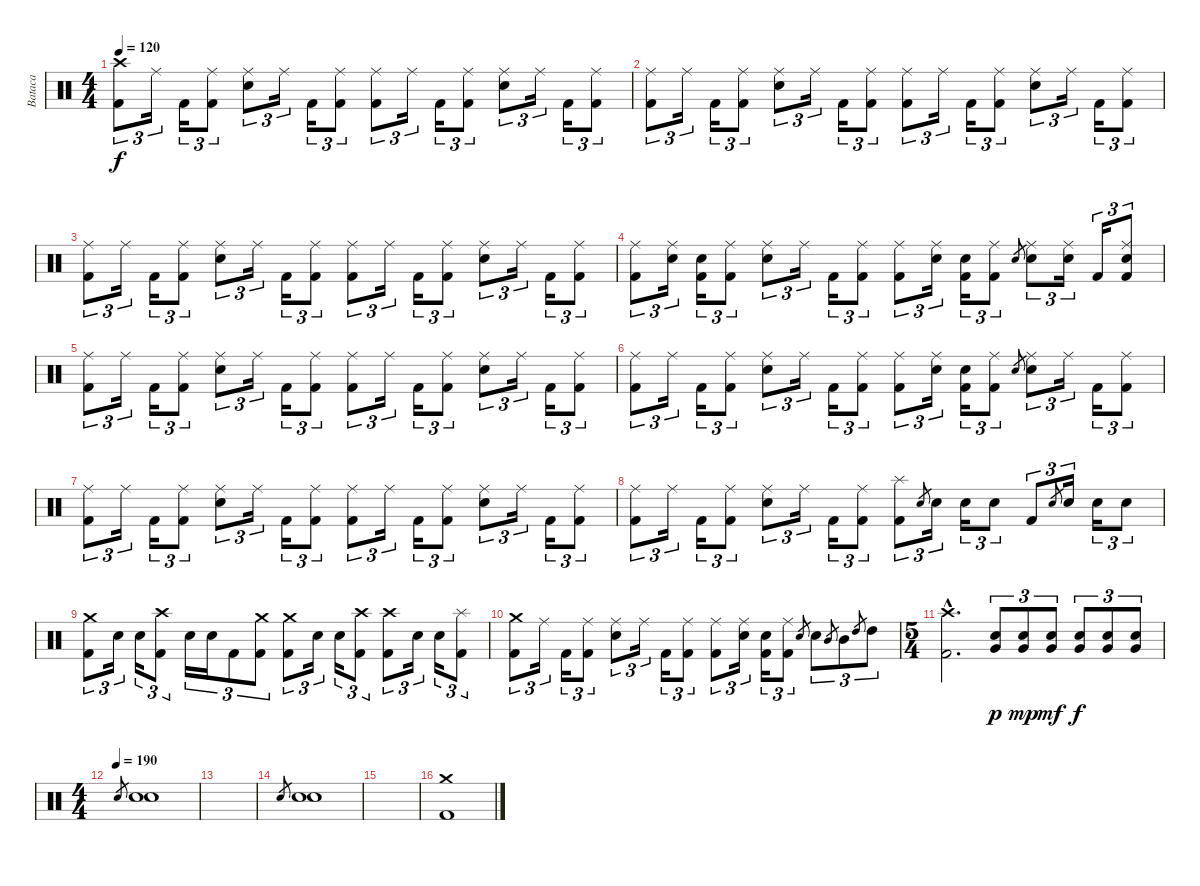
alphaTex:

\track ("Bataca" "Bataca") {instrument percussion}
\staff {score}
\articulation defaults
\ts (4 4)
\tempo 120
\clef neutral
\ks c
("Crash high (hit)" "Kick (hit) 2").8{tu (3 2) dy f} "Ride (middle)".16{tu (3 2)} "Kick (hit) 2".16{tu (3 2)} ("Ride (middle)" "Kick (hit) 2").8{tu (3 2)} ("Ride (middle)" "Electric Snare (hit)").8{tu (3 2)} "Ride (middle)".16{tu (3 2)} "Kick (hit) 2".16{tu (3 2)} ("Ride (middle)" "Kick (hit) 2").8{tu (3 2)} ("Ride (middle)" "Kick (hit) 2").8{tu (3 2)} "Ride (middle)".16{tu (3 2)} "Kick (hit) 2".16{tu (3 2)} ("Ride (middle)" "Kick (hit) 2").8{tu (3 2)} ("Ride (middle)" "Electric Snare (hit)").8{tu (3 2)} "Ride (middle)".16{tu (3 2)} "Kick (hit) 2".16{tu (3 2)} ("Ride (middle)" "Kick (hit) 2").8{tu (3 2)} |
("Ride (middle)" "Kick (hit) 2").8{tu (3 2)} "Ride (middle)".16{tu (3 2)} "Kick (hit) 2".16{tu (3 2)} ("Ride (middle)" "Kick (hit) 2").8{tu (3 2)} ("Ride (middle)" "Electric Snare (hit)").8{tu (3 2)} "Ride (middle)".16{tu (3 2)} "Kick (hit) 2".16{tu (3 2)} ("Ride (middle)" "Kick (hit) 2").8{tu (3 2)} ("Ride (middle)" "Kick (hit) 2").8{tu (3 2)} "Ride (middle)".16{tu (3 2)} "Kick (hit) 2".16{tu (3 2)} ("Ride (middle)" "Kick (hit) 2").8{tu (3 2)} ("Ride (middle)" "Electric Snare (hit)").8{tu (3 2)} "Ride (middle)".16{tu (3 2)} "Kick (hit) 2".16{tu (3 2)} ("Ride (middle)" "Kick (hit) 2").8{tu (3 2)} |
("Ride (middle)" "Kick (hit) 2").8{tu (3 2)} "Ride (middle)".16{tu (3 2)} "Kick (hit) 2".16{tu (3 2)} ("Ride (middle)" "Kick (hit) 2").8{tu (3 2)} ("Ride (middle)" "Electric Snare (hit)").8{tu (3 2)} "Ride (middle)".16{tu (3 2)} "Kick (hit) 2".16{tu (3 2)} ("Ride (middle)" "Kick (hit) 2").8{tu (3 2)} ("Ride (middle)" "Kick (hit) 2").8{tu (3 2)} "Ride (middle)".16{tu (3 2)} "Kick (hit) 2".16{tu (3 2)} ("Ride (middle)" "Kick (hit) 2").8{tu (3 2)} ("Ride (middle)" "Electric Snare (hit)").8{tu (3 2)} "Ride (middle)".16{tu (3 2)} "Kick (hit) 2".16{tu (3 2)} ("Ride (middle)" "Kick (hit) 2").8{tu (3 2)} |
("Ride (middle)" "Kick (hit) 2").8{tu (3 2)} ("Ride (middle)" "Electric Snare (hit)").16{tu (3 2)} ("Electric Snare (hit)" "Kick (hit) 2").16{tu (3 2)} ("Ride (middle)" "Kick (hit) 2").8{tu (3 2)} ("Ride (middle)" "Electric Snare (hit)").8{tu (3 2)} "Ride (middle)".16{tu (3 2)} "Kick (hit) 2".16{tu (3 2)} ("Ride (middle)" "Kick (hit) 2").8{tu (3 2)} ("Ride (middle)" "Kick (hit) 2").8{tu (3 2)} ("Ride (middle)" "Electric Snare (hit)").16{tu (3 2)} ("Electric Snare (hit)" "Kick (hit) 2").16{tu (3 2)} ("Ride (middle)" "Kick (hit) 2").8{tu (3 2)} "Electric Snare (hit)".8{gr} ("Ride (middle)" "Electric Snare (hit)").8{tu (3 2)} ("Ride (middle)" "Electric Snare (hit)").16{tu (3 2)} "Kick (hit) 2".16{tu (3 2)} ("Ride (middle)" "Electric Snare (hit)" "Kick (hit) 2").8{tu (3 2)} |
("Ride (middle)" "Kick (hit) 2").8{tu (3 2)} "Ride (middle)".16{tu (3 2)} "Kick (hit) 2".16{tu (3 2)} ("Ride (middle)" "Kick (hit) 2").8{tu (3 2)} ("Ride (middle)" "Electric Snare (hit)").8{tu (3 2)} "Ride (middle)".16{tu (3 2)} "Kick (hit) 2".16{tu (3 2)} ("Ride (middle)" "Kick (hit) 2").8{tu (3 2)} ("Ride (middle)" "Kick (hit) 2").8{tu (3 2)} "Ride (middle)".16{tu (3 2)} "Kick (hit) 2".16{tu (3 2)} ("Ride (middle)" "Kick (hit) 2").8{tu (3 2)} ("Ride (middle)" "Electric Snare (hit)").8{tu (3 2)} "Ride (middle)".16{tu (3 2)} "Kick (hit) 2".16{tu (3 2)} ("Ride (middle)" "Kick (hit) 2").8{tu (3 2)} |
("Ride (middle)" "Kick (hit) 2").8{tu (3 2)} "Ride (middle)".16{tu (3 2)} "Kick (hit) 2".16{tu (3 2)} ("Ride (middle)" "Kick (hit) 2").8{tu (3 2)} ("Ride (middle)" "Electric Snare (hit)").8{tu (3 2)} "Ride (middle)".16{tu (3 2)} "Kick (hit) 2".16{tu (3 2)} ("Ride (middle)" "Kick (hit) 2").8{tu (3 2)} ("Ride (middle)" "Kick (hit) 2").8{tu (3 2)} ("Ride (middle)" "Electric Snare (hit)").16{tu (3 2)} ("Electric Snare (hit)" "Kick (hit) 2").16{tu (3 2)} ("Ride (middle)" "Kick (hit) 2").8{tu (3 2)} "Electric Snare (hit)".8{gr} ("Ride (middle)" "Electric Snare (hit)").8{tu (3 2)} "Ride (middle)".16{tu (3 2)} "Kick (hit) 2".16{tu (3 2)} ("Ride (middle)" "Kick (hit) 2").8{tu (3 2)} |
("Ride (middle)" "Kick (hit) 2").8{tu (3 2)} "Ride (middle)".16{tu (3 2)} "Kick (hit) 2".16{tu (3 2)} ("Ride (middle)" "Kick (hit) 2").8{tu (3 2)} ("Ride (middle)" "Electric Snare (hit)").8{tu (3 2)} "Ride (middle)".16{tu (3 2)} "Kick (hit) 2".16{tu (3 2)} ("Ride (middle)" "Kick (hit) 2").8{tu (3 2)} ("Ride (middle)" "Kick (hit) 2").8{tu (3 2)} "Ride (middle)".16{tu (3 2)} "Kick (hit) 2".16{tu (3 2)} ("Ride (middle)" "Kick (hit) 2").8{tu (3 2)} ("Ride (middle)" "Electric Snare (hit)").8{tu (3 2)} "Ride (middle)".16{tu (3 2)} "Kick (hit) 2".16{tu (3 2)} ("Ride (middle)" "Kick (hit) 2").8{tu (3 2)} |
("Ride (middle)" "Kick (hit) 2").8{tu (3 2)} "Ride (middle)".16{tu (3 2)} "Kick (hit) 2".16{tu (3 2)} ("Ride (middle)" "Kick (hit) 2").8{tu (3 2)} ("Ride (middle)" "Electric Snare (hit)").8{tu (3 2)} "Ride (middle)".16{tu (3 2)} "Kick (hit) 2".16{tu (3 2)} ("Ride (middle)" "Kick (hit) 2").8{tu (3 2)} ("Splash (hit)" "Kick (hit) 2").8{tu (3 2)} "Electric Snare (hit)".8{gr} "Electric Snare (hit)".16{tu (3 2)} "Electric Snare (hit)".16{tu (3 2)} "Electric Snare (hit)".8{tu (3 2)} "Kick (hit) 2".8{tu (3 2)} "Electric Snare (hit)".8{gr} "Electric Snare (hit)".16{tu (3 2)} "Electric Snare (hit)".16{tu (3 2)} "Electric Snare (hit)".8{tu (3 2)} |
("Crash medium (hit)" "Kick (hit) 2").8{tu (3 2)} "Electric Snare (hit)".16{tu (3 2)} "Electric Snare (hit)".16{tu (3 2)} ("Crash high (hit)" "Kick (hit) 2").8{tu (3 2)} "Electric Snare (hit)".16{tu (3 2)} "Electric Snare (hit)".16{tu (3 2)} "Kick (hit) 2".8{tu (3 2)} ("Crash medium (hit)" "Kick (hit) 2").8{tu (3 2)} ("Crash medium (hit)" "Kick (hit) 2").8{tu (3 2)} "Electric Snare (hit)".16{tu (3 2)} "Electric Snare (hit)".16{tu (3 2)} ("Crash high (hit)" "Kick (hit) 2").8{tu (3 2)} ("Crash high (hit)" "Kick (hit) 2").8{tu (3 2)} "Electric Snare (hit)".16{tu (3 2)} "Electric Snare (hit)".16{tu (3 2)} ("Splash (hit)" "Kick (hit) 2").8{tu (3 2)} |
("Crash medium (hit)" "Kick (hit) 2").8{tu (3 2)} "Ride (middle)".16{tu (3 2)} "Kick (hit) 2".16{tu (3 2)} ("Ride (middle)" "Kick (hit) 2").8{tu (3 2)} ("Ride (middle)" "Electric Snare (hit)").8{tu (3 2)} "Ride (middle)".16{tu (3 2)} "Kick (hit) 2".16{tu (3 2)} ("Ride (middle)" "Kick (hit) 2").8{tu (3 2)} ("Ride (middle)" "Kick (hit) 2").8{tu (3 2)} ("Ride (middle)" "Electric Snare (hit)").16{tu (3 2)} ("Electric Snare (hit)" "Kick (hit) 2").16{tu (3 2)} ("Ride (middle)" "Kick (hit) 2").8{tu (3 2)} "Electric Snare (hit)".8{gr} "Electric Snare (hit)".8{tu (3 2)} "Mid Tom (hit)".8{gr} "Mid Tom (hit)".8{tu (3 2)} "High Tom (hit)".8{gr} "High Tom (hit)".8{tu (3 2)} |
\ts (5 4)
("Crash high (hit)"{hac} "Kick (hit) 2"{hac}).2{d} ("Electric Snare (hit)" "Very Low Tom (hit)").8{tu (3 2) dy p} ("Electric Snare (hit)" "Very Low Tom (hit)").8{tu (3 2) dy mp} ("Electric Snare (hit)" "Very Low Tom (hit)").8{tu (3 2) dy mf} ("Electric Snare (hit)" "Very Low Tom (hit)").8{tu (3 2) dy f} ("Electric Snare (hit)" "Very Low Tom (hit)").8{tu (3 2)} ("Electric Snare (hit)" "Very Low Tom (hit)").8{tu (3 2)} |
\ts (4 4)
\tempo 180
\tempo (190)
"Electric Snare (hit)".8{gr} ("Electric Snare (hit)" "Electric Snare (hit)").1 |
|
"Electric Snare (hit)".8{gr} ("Electric Snare (hit)" "Electric Snare (hit)").1 |
|
("Crash medium (hit)" "Kick (hit) 2").1
